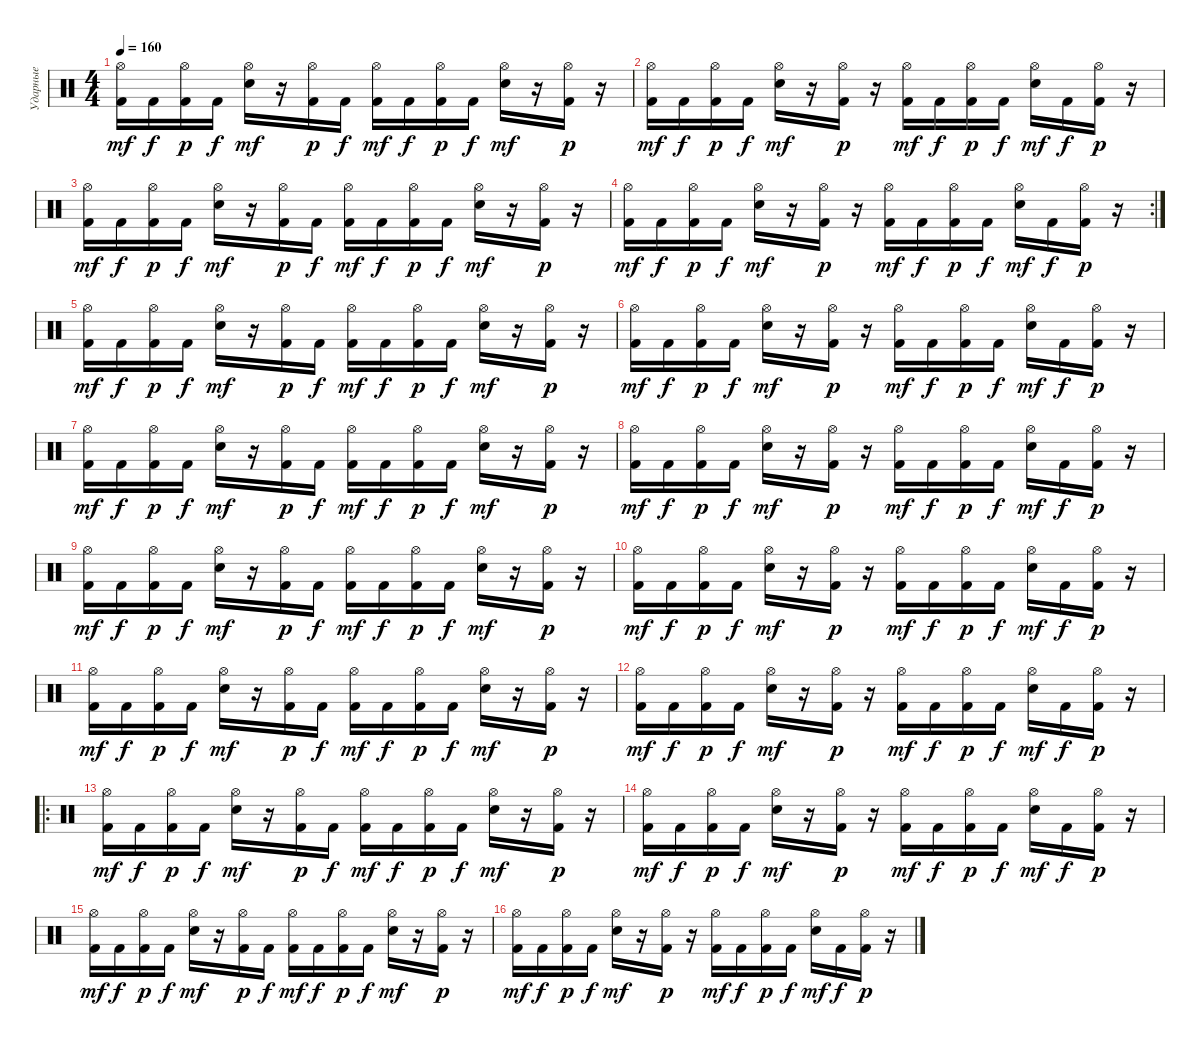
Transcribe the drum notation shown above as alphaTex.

\track ("Ударные" "Ударные") {instrument percussion}
\staff {score}
\articulation defaults
\ts (4 4)
\tempo 160
\clef neutral
\ks c
("Hi-Hat (open)" "Kick (hit) 2").16{dy mf} "Kick (hit) 2".16{dy f} ("Hi-Hat (open)" "Kick (hit) 2").16{dy p} "Kick (hit) 2".16{dy f} ("Hi-Hat (open)" "Electric Snare (hit)").16{dy mf} r.16 ("Hi-Hat (open)" "Kick (hit) 2").16{dy p} "Kick (hit) 2".16{dy f} ("Hi-Hat (open)" "Kick (hit) 2").16{dy mf} "Kick (hit) 2".16{dy f} ("Hi-Hat (open)" "Kick (hit) 2").16{dy p} "Kick (hit) 2".16{dy f} ("Hi-Hat (open)" "Electric Snare (hit)").16{dy mf} r.16 ("Hi-Hat (open)" "Kick (hit) 2").16{dy p} r.16 |
("Hi-Hat (open)" "Kick (hit) 2").16{dy mf} "Kick (hit) 2".16{dy f} ("Hi-Hat (open)" "Kick (hit) 2").16{dy p} "Kick (hit) 2".16{dy f} ("Hi-Hat (open)" "Electric Snare (hit)").16{dy mf} r.16 ("Hi-Hat (open)" "Kick (hit) 2").16{dy p} r.16 ("Hi-Hat (open)" "Kick (hit) 2").16{dy mf} "Kick (hit) 2".16{dy f} ("Hi-Hat (open)" "Kick (hit) 2").16{dy p} "Kick (hit) 2".16{dy f} ("Hi-Hat (open)" "Electric Snare (hit)").16{dy mf} "Kick (hit) 2".16{dy f} ("Hi-Hat (open)" "Kick (hit) 2").16{dy p} r.16 |
("Hi-Hat (open)" "Kick (hit) 2").16{dy mf} "Kick (hit) 2".16{dy f} ("Hi-Hat (open)" "Kick (hit) 2").16{dy p} "Kick (hit) 2".16{dy f} ("Hi-Hat (open)" "Electric Snare (hit)").16{dy mf} r.16 ("Hi-Hat (open)" "Kick (hit) 2").16{dy p} "Kick (hit) 2".16{dy f} ("Hi-Hat (open)" "Kick (hit) 2").16{dy mf} "Kick (hit) 2".16{dy f} ("Hi-Hat (open)" "Kick (hit) 2").16{dy p} "Kick (hit) 2".16{dy f} ("Hi-Hat (open)" "Electric Snare (hit)").16{dy mf} r.16 ("Hi-Hat (open)" "Kick (hit) 2").16{dy p} r.16 |
\rc 2
("Hi-Hat (open)" "Kick (hit) 2").16{dy mf} "Kick (hit) 2".16{dy f} ("Hi-Hat (open)" "Kick (hit) 2").16{dy p} "Kick (hit) 2".16{dy f} ("Hi-Hat (open)" "Electric Snare (hit)").16{dy mf} r.16 ("Hi-Hat (open)" "Kick (hit) 2").16{dy p} r.16 ("Hi-Hat (open)" "Kick (hit) 2").16{dy mf} "Kick (hit) 2".16{dy f} ("Hi-Hat (open)" "Kick (hit) 2").16{dy p} "Kick (hit) 2".16{dy f} ("Hi-Hat (open)" "Electric Snare (hit)").16{dy mf} "Kick (hit) 2".16{dy f} ("Hi-Hat (open)" "Kick (hit) 2").16{dy p} r.16 |
("Hi-Hat (open)" "Kick (hit) 2").16{dy mf} "Kick (hit) 2".16{dy f} ("Hi-Hat (open)" "Kick (hit) 2").16{dy p} "Kick (hit) 2".16{dy f} ("Hi-Hat (open)" "Electric Snare (hit)").16{dy mf} r.16 ("Hi-Hat (open)" "Kick (hit) 2").16{dy p} "Kick (hit) 2".16{dy f} ("Hi-Hat (open)" "Kick (hit) 2").16{dy mf} "Kick (hit) 2".16{dy f} ("Hi-Hat (open)" "Kick (hit) 2").16{dy p} "Kick (hit) 2".16{dy f} ("Hi-Hat (open)" "Electric Snare (hit)").16{dy mf} r.16 ("Hi-Hat (open)" "Kick (hit) 2").16{dy p} r.16 |
("Hi-Hat (open)" "Kick (hit) 2").16{dy mf} "Kick (hit) 2".16{dy f} ("Hi-Hat (open)" "Kick (hit) 2").16{dy p} "Kick (hit) 2".16{dy f} ("Hi-Hat (open)" "Electric Snare (hit)").16{dy mf} r.16 ("Hi-Hat (open)" "Kick (hit) 2").16{dy p} r.16 ("Hi-Hat (open)" "Kick (hit) 2").16{dy mf} "Kick (hit) 2".16{dy f} ("Hi-Hat (open)" "Kick (hit) 2").16{dy p} "Kick (hit) 2".16{dy f} ("Hi-Hat (open)" "Electric Snare (hit)").16{dy mf} "Kick (hit) 2".16{dy f} ("Hi-Hat (open)" "Kick (hit) 2").16{dy p} r.16 |
("Hi-Hat (open)" "Kick (hit) 2").16{dy mf} "Kick (hit) 2".16{dy f} ("Hi-Hat (open)" "Kick (hit) 2").16{dy p} "Kick (hit) 2".16{dy f} ("Hi-Hat (open)" "Electric Snare (hit)").16{dy mf} r.16 ("Hi-Hat (open)" "Kick (hit) 2").16{dy p} "Kick (hit) 2".16{dy f} ("Hi-Hat (open)" "Kick (hit) 2").16{dy mf} "Kick (hit) 2".16{dy f} ("Hi-Hat (open)" "Kick (hit) 2").16{dy p} "Kick (hit) 2".16{dy f} ("Hi-Hat (open)" "Electric Snare (hit)").16{dy mf} r.16 ("Hi-Hat (open)" "Kick (hit) 2").16{dy p} r.16 |
("Hi-Hat (open)" "Kick (hit) 2").16{dy mf} "Kick (hit) 2".16{dy f} ("Hi-Hat (open)" "Kick (hit) 2").16{dy p} "Kick (hit) 2".16{dy f} ("Hi-Hat (open)" "Electric Snare (hit)").16{dy mf} r.16 ("Hi-Hat (open)" "Kick (hit) 2").16{dy p} r.16 ("Hi-Hat (open)" "Kick (hit) 2").16{dy mf} "Kick (hit) 2".16{dy f} ("Hi-Hat (open)" "Kick (hit) 2").16{dy p} "Kick (hit) 2".16{dy f} ("Hi-Hat (open)" "Electric Snare (hit)").16{dy mf} "Kick (hit) 2".16{dy f} ("Hi-Hat (open)" "Kick (hit) 2").16{dy p} r.16 |
("Hi-Hat (open)" "Kick (hit) 2").16{dy mf} "Kick (hit) 2".16{dy f} ("Hi-Hat (open)" "Kick (hit) 2").16{dy p} "Kick (hit) 2".16{dy f} ("Hi-Hat (open)" "Electric Snare (hit)").16{dy mf} r.16 ("Hi-Hat (open)" "Kick (hit) 2").16{dy p} "Kick (hit) 2".16{dy f} ("Hi-Hat (open)" "Kick (hit) 2").16{dy mf} "Kick (hit) 2".16{dy f} ("Hi-Hat (open)" "Kick (hit) 2").16{dy p} "Kick (hit) 2".16{dy f} ("Hi-Hat (open)" "Electric Snare (hit)").16{dy mf} r.16 ("Hi-Hat (open)" "Kick (hit) 2").16{dy p} r.16 |
("Hi-Hat (open)" "Kick (hit) 2").16{dy mf} "Kick (hit) 2".16{dy f} ("Hi-Hat (open)" "Kick (hit) 2").16{dy p} "Kick (hit) 2".16{dy f} ("Hi-Hat (open)" "Electric Snare (hit)").16{dy mf} r.16 ("Hi-Hat (open)" "Kick (hit) 2").16{dy p} r.16 ("Hi-Hat (open)" "Kick (hit) 2").16{dy mf} "Kick (hit) 2".16{dy f} ("Hi-Hat (open)" "Kick (hit) 2").16{dy p} "Kick (hit) 2".16{dy f} ("Hi-Hat (open)" "Electric Snare (hit)").16{dy mf} "Kick (hit) 2".16{dy f} ("Hi-Hat (open)" "Kick (hit) 2").16{dy p} r.16 |
("Hi-Hat (open)" "Kick (hit) 2").16{dy mf} "Kick (hit) 2".16{dy f} ("Hi-Hat (open)" "Kick (hit) 2").16{dy p} "Kick (hit) 2".16{dy f} ("Hi-Hat (open)" "Electric Snare (hit)").16{dy mf} r.16 ("Hi-Hat (open)" "Kick (hit) 2").16{dy p} "Kick (hit) 2".16{dy f} ("Hi-Hat (open)" "Kick (hit) 2").16{dy mf} "Kick (hit) 2".16{dy f} ("Hi-Hat (open)" "Kick (hit) 2").16{dy p} "Kick (hit) 2".16{dy f} ("Hi-Hat (open)" "Electric Snare (hit)").16{dy mf} r.16 ("Hi-Hat (open)" "Kick (hit) 2").16{dy p} r.16 |
("Hi-Hat (open)" "Kick (hit) 2").16{dy mf} "Kick (hit) 2".16{dy f} ("Hi-Hat (open)" "Kick (hit) 2").16{dy p} "Kick (hit) 2".16{dy f} ("Hi-Hat (open)" "Electric Snare (hit)").16{dy mf} r.16 ("Hi-Hat (open)" "Kick (hit) 2").16{dy p} r.16 ("Hi-Hat (open)" "Kick (hit) 2").16{dy mf} "Kick (hit) 2".16{dy f} ("Hi-Hat (open)" "Kick (hit) 2").16{dy p} "Kick (hit) 2".16{dy f} ("Hi-Hat (open)" "Electric Snare (hit)").16{dy mf} "Kick (hit) 2".16{dy f} ("Hi-Hat (open)" "Kick (hit) 2").16{dy p} r.16 |
\ro
("Hi-Hat (open)" "Kick (hit) 2").16{dy mf} "Kick (hit) 2".16{dy f} ("Hi-Hat (open)" "Kick (hit) 2").16{dy p} "Kick (hit) 2".16{dy f} ("Hi-Hat (open)" "Electric Snare (hit)").16{dy mf} r.16 ("Hi-Hat (open)" "Kick (hit) 2").16{dy p} "Kick (hit) 2".16{dy f} ("Hi-Hat (open)" "Kick (hit) 2").16{dy mf} "Kick (hit) 2".16{dy f} ("Hi-Hat (open)" "Kick (hit) 2").16{dy p} "Kick (hit) 2".16{dy f} ("Hi-Hat (open)" "Electric Snare (hit)").16{dy mf} r.16 ("Hi-Hat (open)" "Kick (hit) 2").16{dy p} r.16 |
("Hi-Hat (open)" "Kick (hit) 2").16{dy mf} "Kick (hit) 2".16{dy f} ("Hi-Hat (open)" "Kick (hit) 2").16{dy p} "Kick (hit) 2".16{dy f} ("Hi-Hat (open)" "Electric Snare (hit)").16{dy mf} r.16 ("Hi-Hat (open)" "Kick (hit) 2").16{dy p} r.16 ("Hi-Hat (open)" "Kick (hit) 2").16{dy mf} "Kick (hit) 2".16{dy f} ("Hi-Hat (open)" "Kick (hit) 2").16{dy p} "Kick (hit) 2".16{dy f} ("Hi-Hat (open)" "Electric Snare (hit)").16{dy mf} "Kick (hit) 2".16{dy f} ("Hi-Hat (open)" "Kick (hit) 2").16{dy p} r.16 |
("Hi-Hat (open)" "Kick (hit) 2").16{dy mf} "Kick (hit) 2".16{dy f} ("Hi-Hat (open)" "Kick (hit) 2").16{dy p} "Kick (hit) 2".16{dy f} ("Hi-Hat (open)" "Electric Snare (hit)").16{dy mf} r.16 ("Hi-Hat (open)" "Kick (hit) 2").16{dy p} "Kick (hit) 2".16{dy f} ("Hi-Hat (open)" "Kick (hit) 2").16{dy mf} "Kick (hit) 2".16{dy f} ("Hi-Hat (open)" "Kick (hit) 2").16{dy p} "Kick (hit) 2".16{dy f} ("Hi-Hat (open)" "Electric Snare (hit)").16{dy mf} r.16 ("Hi-Hat (open)" "Kick (hit) 2").16{dy p} r.16 |
("Hi-Hat (open)" "Kick (hit) 2").16{dy mf} "Kick (hit) 2".16{dy f} ("Hi-Hat (open)" "Kick (hit) 2").16{dy p} "Kick (hit) 2".16{dy f} ("Hi-Hat (open)" "Electric Snare (hit)").16{dy mf} r.16 ("Hi-Hat (open)" "Kick (hit) 2").16{dy p} r.16 ("Hi-Hat (open)" "Kick (hit) 2").16{dy mf} "Kick (hit) 2".16{dy f} ("Hi-Hat (open)" "Kick (hit) 2").16{dy p} "Kick (hit) 2".16{dy f} ("Hi-Hat (open)" "Electric Snare (hit)").16{dy mf} "Kick (hit) 2".16{dy f} ("Hi-Hat (open)" "Kick (hit) 2").16{dy p} r.16
